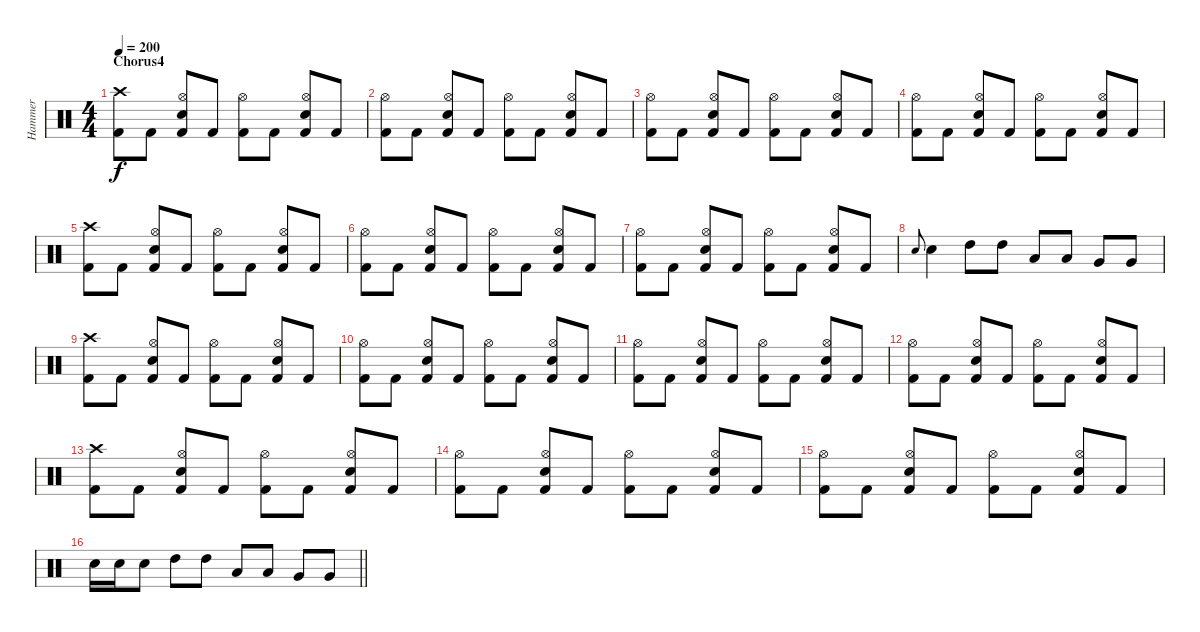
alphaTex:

\track ("Hammer" "Hammer") {instrument percussion}
\staff {score}
\articulation defaults
\ts (4 4)
\section ("" "Chorus4")
\tempo 200
\clef neutral
\ks c
("Crash high (hit)" "Kick (hit) 2").8{dy f} "Kick (hit) 2".8 ("Hi-Hat (open)" "Snare (hit) 2" "Kick (hit) 2").8 "Kick (hit) 2".8 ("Hi-Hat (open)" "Kick (hit) 2").8 "Kick (hit) 2".8 ("Hi-Hat (open)" "Snare (hit) 2" "Kick (hit) 2").8 "Kick (hit) 2".8 |
("Hi-Hat (open)" "Kick (hit) 2").8 "Kick (hit) 2".8 ("Hi-Hat (open)" "Snare (hit) 2" "Kick (hit) 2").8 "Kick (hit) 2".8 ("Hi-Hat (open)" "Kick (hit) 2").8 "Kick (hit) 2".8 ("Hi-Hat (open)" "Snare (hit) 2" "Kick (hit) 2").8 "Kick (hit) 2".8 |
("Hi-Hat (open)" "Kick (hit) 2").8 "Kick (hit) 2".8 ("Hi-Hat (open)" "Snare (hit) 2" "Kick (hit) 2").8 "Kick (hit) 2".8 ("Hi-Hat (open)" "Kick (hit) 2").8 "Kick (hit) 2".8 ("Hi-Hat (open)" "Snare (hit) 2" "Kick (hit) 2").8 "Kick (hit) 2".8 |
("Hi-Hat (open)" "Kick (hit) 2").8 "Kick (hit) 2".8 ("Hi-Hat (open)" "Snare (hit) 2" "Kick (hit) 2").8 "Kick (hit) 2".8 ("Hi-Hat (open)" "Kick (hit) 2").8 "Kick (hit) 2".8 ("Hi-Hat (open)" "Snare (hit) 2" "Kick (hit) 2").8 "Kick (hit) 2".8 |
("Crash high (hit)" "Kick (hit) 2").8 "Kick (hit) 2".8 ("Hi-Hat (open)" "Snare (hit) 2" "Kick (hit) 2").8 "Kick (hit) 2".8 ("Hi-Hat (open)" "Kick (hit) 2").8 "Kick (hit) 2".8 ("Hi-Hat (open)" "Snare (hit) 2" "Kick (hit) 2").8 "Kick (hit) 2".8 |
("Hi-Hat (open)" "Kick (hit) 2").8 "Kick (hit) 2".8 ("Hi-Hat (open)" "Snare (hit) 2" "Kick (hit) 2").8 "Kick (hit) 2".8 ("Hi-Hat (open)" "Kick (hit) 2").8 "Kick (hit) 2".8 ("Hi-Hat (open)" "Snare (hit) 2" "Kick (hit) 2").8 "Kick (hit) 2".8 |
("Hi-Hat (open)" "Kick (hit) 2").8 "Kick (hit) 2".8 ("Hi-Hat (open)" "Snare (hit) 2" "Kick (hit) 2").8 "Kick (hit) 2".8 ("Hi-Hat (open)" "Kick (hit) 2").8 "Kick (hit) 2".8 ("Hi-Hat (open)" "Snare (hit) 2" "Kick (hit) 2").8 "Kick (hit) 2".8 |
"Snare (hit) 2".8{gr onbeat} "Snare (hit) 2".4 "High Tom (hit)".8 "High Tom (hit)".8 "Low Tom (hit)".8 "Low Tom (hit)".8 "Very Low Tom (hit)".8 "Very Low Tom (hit)".8 |
("Crash high (hit)" "Kick (hit) 2").8 "Kick (hit) 2".8 ("Hi-Hat (open)" "Snare (hit) 2" "Kick (hit) 2").8 "Kick (hit) 2".8 ("Hi-Hat (open)" "Kick (hit) 2").8 "Kick (hit) 2".8 ("Hi-Hat (open)" "Snare (hit) 2" "Kick (hit) 2").8 "Kick (hit) 2".8 |
("Hi-Hat (open)" "Kick (hit) 2").8 "Kick (hit) 2".8 ("Hi-Hat (open)" "Snare (hit) 2" "Kick (hit) 2").8 "Kick (hit) 2".8 ("Hi-Hat (open)" "Kick (hit) 2").8 "Kick (hit) 2".8 ("Hi-Hat (open)" "Snare (hit) 2" "Kick (hit) 2").8 "Kick (hit) 2".8 |
("Hi-Hat (open)" "Kick (hit) 2").8 "Kick (hit) 2".8 ("Hi-Hat (open)" "Snare (hit) 2" "Kick (hit) 2").8 "Kick (hit) 2".8 ("Hi-Hat (open)" "Kick (hit) 2").8 "Kick (hit) 2".8 ("Hi-Hat (open)" "Snare (hit) 2" "Kick (hit) 2").8 "Kick (hit) 2".8 |
("Hi-Hat (open)" "Kick (hit) 2").8 "Kick (hit) 2".8 ("Hi-Hat (open)" "Snare (hit) 2" "Kick (hit) 2").8 "Kick (hit) 2".8 ("Hi-Hat (open)" "Kick (hit) 2").8 "Kick (hit) 2".8 ("Hi-Hat (open)" "Snare (hit) 2" "Kick (hit) 2").8 "Kick (hit) 2".8 |
("Crash high (hit)" "Kick (hit) 2").8 "Kick (hit) 2".8 ("Hi-Hat (open)" "Snare (hit) 2" "Kick (hit) 2").8 "Kick (hit) 2".8 ("Hi-Hat (open)" "Kick (hit) 2").8 "Kick (hit) 2".8 ("Hi-Hat (open)" "Snare (hit) 2" "Kick (hit) 2").8 "Kick (hit) 2".8 |
("Hi-Hat (open)" "Kick (hit) 2").8 "Kick (hit) 2".8 ("Hi-Hat (open)" "Snare (hit) 2" "Kick (hit) 2").8 "Kick (hit) 2".8 ("Hi-Hat (open)" "Kick (hit) 2").8 "Kick (hit) 2".8 ("Hi-Hat (open)" "Snare (hit) 2" "Kick (hit) 2").8 "Kick (hit) 2".8 |
("Hi-Hat (open)" "Kick (hit) 2").8 "Kick (hit) 2".8 ("Hi-Hat (open)" "Snare (hit) 2" "Kick (hit) 2").8 "Kick (hit) 2".8 ("Hi-Hat (open)" "Kick (hit) 2").8 "Kick (hit) 2".8 ("Hi-Hat (open)" "Snare (hit) 2" "Kick (hit) 2").8 "Kick (hit) 2".8 |
\barLineRight lightlight "Snare (hit) 2".16 "Snare (hit) 2".16 "Snare (hit) 2".8 "High Tom (hit)".8 "High Tom (hit)".8 "Low Tom (hit)".8 "Low Tom (hit)".8 "Very Low Tom (hit)".8 "Very Low Tom (hit)".8
